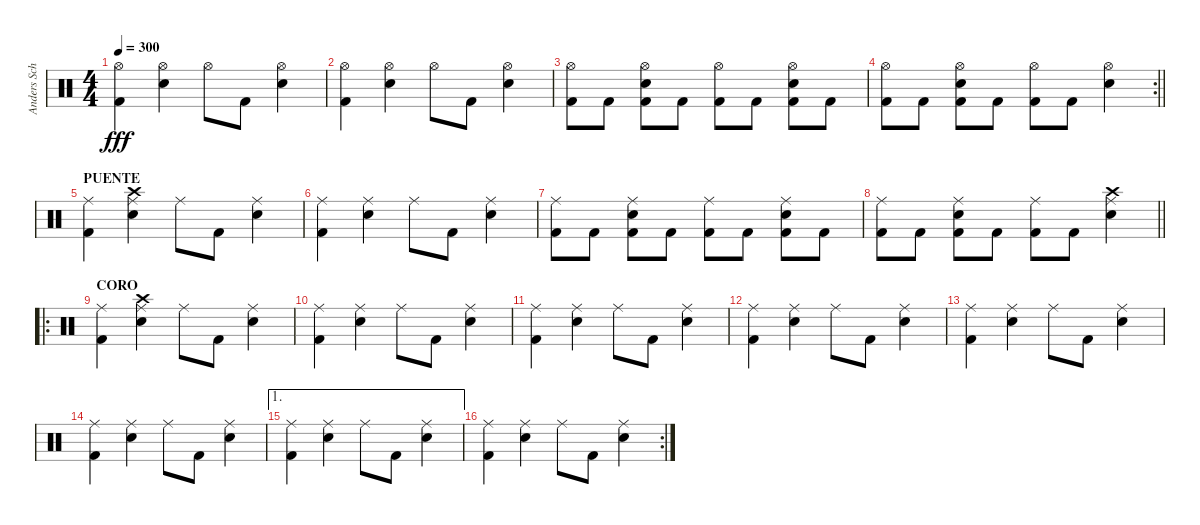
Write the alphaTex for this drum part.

\track ("Anders Schultz" "Anders Sch") {instrument percussion}
\staff {score}
\articulation defaults
\ts (4 4)
\tempo 300
\clef neutral
\ks c
("Hi-Hat (open)" "Kick (hit) 2").4{dy fff} ("Hi-Hat (open)" "Snare (hit) 2").4 "Hi-Hat (open)".8 "Kick (hit) 2".8 ("Hi-Hat (open)" "Snare (hit) 2").4 |
("Hi-Hat (open)" "Kick (hit) 2").4 ("Hi-Hat (open)" "Snare (hit) 2").4 "Hi-Hat (open)".8 "Kick (hit) 2".8 ("Hi-Hat (open)" "Snare (hit) 2").4 |
("Hi-Hat (open)" "Kick (hit) 2").8 "Kick (hit) 2".8 ("Hi-Hat (open)" "Snare (hit) 2" "Kick (hit) 2").8 "Kick (hit) 2".8 ("Hi-Hat (open)" "Kick (hit) 2").8 "Kick (hit) 2".8 ("Hi-Hat (open)" "Snare (hit) 2" "Kick (hit) 2").8 "Kick (hit) 2".8 |
\rc 2
\barLineRight lightlight
("Hi-Hat (open)" "Kick (hit) 2").8 "Kick (hit) 2".8 ("Hi-Hat (open)" "Snare (hit) 2" "Kick (hit) 2").8 "Kick (hit) 2".8 ("Hi-Hat (open)" "Kick (hit) 2").8 "Kick (hit) 2".8 ("Hi-Hat (open)" "Snare (hit) 2").4 |
\section ("" "PUENTE")
("Ride (middle)" "Kick (hit) 2").4 ("Ride (middle)" "Crash high (hit)" "Snare (hit) 2").4 "Ride (middle)".8 "Kick (hit) 2".8 ("Ride (middle)" "Snare (hit) 2").4 |
("Ride (middle)" "Kick (hit) 2").4 ("Ride (middle)" "Snare (hit) 2").4 "Ride (middle)".8 "Kick (hit) 2".8 ("Ride (middle)" "Snare (hit) 2").4 |
("Ride (middle)" "Kick (hit) 2").8 "Kick (hit) 2".8 ("Ride (middle)" "Snare (hit) 2" "Kick (hit) 2").8 "Kick (hit) 2".8 ("Ride (middle)" "Kick (hit) 2").8 "Kick (hit) 2".8 ("Ride (middle)" "Snare (hit) 2" "Kick (hit) 2").8 "Kick (hit) 2".8 |
\barLineRight lightlight
("Ride (middle)" "Kick (hit) 2").8 "Kick (hit) 2".8 ("Ride (middle)" "Snare (hit) 2" "Kick (hit) 2").8 "Kick (hit) 2".8 ("Ride (middle)" "Kick (hit) 2").8 "Kick (hit) 2".8 ("Ride (middle)" "Crash high (hit)" "Snare (hit) 2").4 |
\ro
\section ("" "CORO")
("Ride (middle)" "Kick (hit) 2").4 ("Ride (middle)" "Crash high (hit)" "Snare (hit) 2").4 "Ride (middle)".8 "Kick (hit) 2".8 ("Ride (middle)" "Snare (hit) 2").4 |
("Ride (middle)" "Kick (hit) 2").4 ("Ride (middle)" "Snare (hit) 2").4 "Ride (middle)".8 "Kick (hit) 2".8 ("Ride (middle)" "Snare (hit) 2").4 |
("Ride (middle)" "Kick (hit) 2").4 ("Ride (middle)" "Snare (hit) 2").4 "Ride (middle)".8 "Kick (hit) 2".8 ("Ride (middle)" "Snare (hit) 2").4 |
("Ride (middle)" "Kick (hit) 2").4 ("Ride (middle)" "Snare (hit) 2").4 "Ride (middle)".8 "Kick (hit) 2".8 ("Ride (middle)" "Snare (hit) 2").4 |
("Ride (middle)" "Kick (hit) 2").4 ("Ride (middle)" "Snare (hit) 2").4 "Ride (middle)".8 "Kick (hit) 2".8 ("Ride (middle)" "Snare (hit) 2").4 |
("Ride (middle)" "Kick (hit) 2").4 ("Ride (middle)" "Snare (hit) 2").4 "Ride (middle)".8 "Kick (hit) 2".8 ("Ride (middle)" "Snare (hit) 2").4 |
\ae 1
("Ride (middle)" "Kick (hit) 2").4 ("Ride (middle)" "Snare (hit) 2").4 "Ride (middle)".8 "Kick (hit) 2".8 ("Ride (middle)" "Snare (hit) 2").4 |
\rc 2
("Ride (middle)" "Kick (hit) 2").4 ("Ride (middle)" "Snare (hit) 2").4 "Ride (middle)".8 "Kick (hit) 2".8 ("Ride (middle)" "Snare (hit) 2").4
